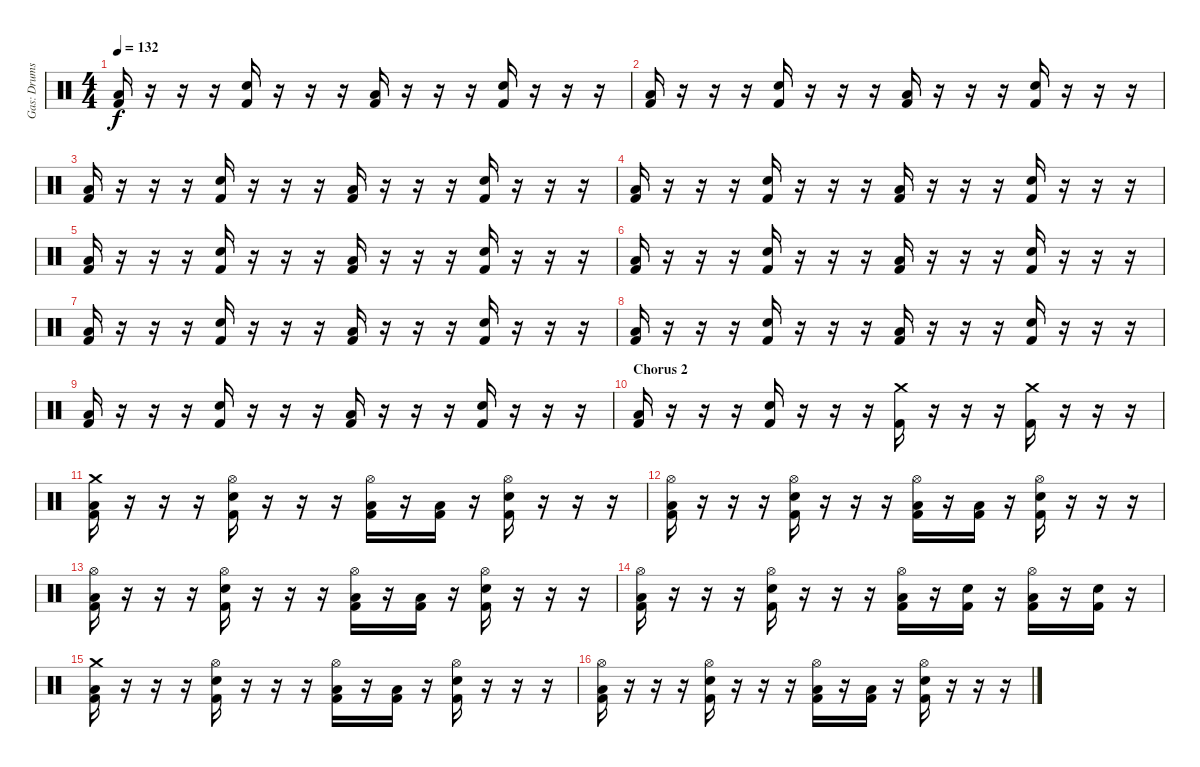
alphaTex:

\track ("Gas: Drums" "Gas: Drums") {instrument percussion}
\staff {score}
\articulation defaults
\ts (4 4)
\tempo 132
\clef neutral
\ks c
("Low Tom (hit)" "Kick (hit) 2").16{dy f} r.16 r.16 r.16 ("Electric Snare (hit)" "Kick (hit) 2").16 r.16 r.16 r.16 ("Low Tom (hit)" "Kick (hit) 2").16 r.16 r.16 r.16 ("Electric Snare (hit)" "Kick (hit) 2").16 r.16 r.16 r.16 |
("Low Tom (hit)" "Kick (hit) 2").16 r.16 r.16 r.16 ("Electric Snare (hit)" "Kick (hit) 2").16 r.16 r.16 r.16 ("Low Tom (hit)" "Kick (hit) 2").16 r.16 r.16 r.16 ("Electric Snare (hit)" "Kick (hit) 2").16 r.16 r.16 r.16 |
("Low Tom (hit)" "Kick (hit) 2").16 r.16 r.16 r.16 ("Electric Snare (hit)" "Kick (hit) 2").16 r.16 r.16 r.16 ("Low Tom (hit)" "Kick (hit) 2").16 r.16 r.16 r.16 ("Electric Snare (hit)" "Kick (hit) 2").16 r.16 r.16 r.16 |
("Low Tom (hit)" "Kick (hit) 2").16 r.16 r.16 r.16 ("Electric Snare (hit)" "Kick (hit) 2").16 r.16 r.16 r.16 ("Low Tom (hit)" "Kick (hit) 2").16 r.16 r.16 r.16 ("Electric Snare (hit)" "Kick (hit) 2").16 r.16 r.16 r.16 |
("Low Tom (hit)" "Kick (hit) 2").16 r.16 r.16 r.16 ("Electric Snare (hit)" "Kick (hit) 2").16 r.16 r.16 r.16 ("Low Tom (hit)" "Kick (hit) 2").16 r.16 r.16 r.16 ("Electric Snare (hit)" "Kick (hit) 2").16 r.16 r.16 r.16 |
("Low Tom (hit)" "Kick (hit) 2").16 r.16 r.16 r.16 ("Electric Snare (hit)" "Kick (hit) 2").16 r.16 r.16 r.16 ("Low Tom (hit)" "Kick (hit) 2").16 r.16 r.16 r.16 ("Electric Snare (hit)" "Kick (hit) 2").16 r.16 r.16 r.16 |
("Low Tom (hit)" "Kick (hit) 2").16 r.16 r.16 r.16 ("Electric Snare (hit)" "Kick (hit) 2").16 r.16 r.16 r.16 ("Low Tom (hit)" "Kick (hit) 2").16 r.16 r.16 r.16 ("Electric Snare (hit)" "Kick (hit) 2").16 r.16 r.16 r.16 |
("Low Tom (hit)" "Kick (hit) 2").16 r.16 r.16 r.16 ("Electric Snare (hit)" "Kick (hit) 2").16 r.16 r.16 r.16 ("Low Tom (hit)" "Kick (hit) 2").16 r.16 r.16 r.16 ("Electric Snare (hit)" "Kick (hit) 2").16 r.16 r.16 r.16 |
("Low Tom (hit)" "Kick (hit) 2").16 r.16 r.16 r.16 ("Electric Snare (hit)" "Kick (hit) 2").16 r.16 r.16 r.16 ("Low Tom (hit)" "Kick (hit) 2").16 r.16 r.16 r.16 ("Electric Snare (hit)" "Kick (hit) 2").16 r.16 r.16 r.16 |
\section ("" "Chorus 2")
("Low Tom (hit)" "Kick (hit) 2").16 r.16 r.16 r.16 ("Electric Snare (hit)" "Kick (hit) 2").16 r.16 r.16 r.16 ("Crash medium (hit)" "Kick (hit) 2").16 r.16 r.16 r.16 ("Crash medium (hit)" "Kick (hit) 2").16 r.16 r.16 r.16 |
("Crash medium (hit)" "Low Tom (hit)" "Kick (hit) 2").16 r.16 r.16 r.16 ("Hi-Hat (open)" "Electric Snare (hit)" "Kick (hit) 2").16 r.16 r.16 r.16 ("Hi-Hat (open)" "Low Tom (hit)" "Kick (hit) 2").16 r.16 ("Low Tom (hit)" "Kick (hit) 2").16 r.16 ("Hi-Hat (open)" "Electric Snare (hit)" "Kick (hit) 2").16 r.16 r.16 r.16 |
("Hi-Hat (open)" "Low Tom (hit)" "Kick (hit) 2").16 r.16 r.16 r.16 ("Hi-Hat (open)" "Electric Snare (hit)" "Kick (hit) 2").16 r.16 r.16 r.16 ("Hi-Hat (open)" "Low Tom (hit)" "Kick (hit) 2").16 r.16 ("Low Tom (hit)" "Kick (hit) 2").16 r.16 ("Hi-Hat (open)" "Electric Snare (hit)" "Kick (hit) 2").16 r.16 r.16 r.16 |
("Hi-Hat (open)" "Low Tom (hit)" "Kick (hit) 2").16 r.16 r.16 r.16 ("Hi-Hat (open)" "Electric Snare (hit)" "Kick (hit) 2").16 r.16 r.16 r.16 ("Hi-Hat (open)" "Low Tom (hit)" "Kick (hit) 2").16 r.16 ("Low Tom (hit)" "Kick (hit) 2").16 r.16 ("Hi-Hat (open)" "Electric Snare (hit)" "Kick (hit) 2").16 r.16 r.16 r.16 |
("Hi-Hat (open)" "Low Tom (hit)" "Kick (hit) 2").16 r.16 r.16 r.16 ("Hi-Hat (open)" "Electric Snare (hit)" "Kick (hit) 2").16 r.16 r.16 r.16 ("Hi-Hat (open)" "Low Tom (hit)" "Kick (hit) 2").16 r.16 ("Electric Snare (hit)" "Kick (hit) 2").16 r.16 ("Hi-Hat (open)" "Low Tom (hit)" "Kick (hit) 2").16 r.16 ("Electric Snare (hit)" "Kick (hit) 2").16 r.16 |
("Crash medium (hit)" "Low Tom (hit)" "Kick (hit) 2").16 r.16 r.16 r.16 ("Hi-Hat (open)" "Electric Snare (hit)" "Kick (hit) 2").16 r.16 r.16 r.16 ("Hi-Hat (open)" "Low Tom (hit)" "Kick (hit) 2").16 r.16 ("Low Tom (hit)" "Kick (hit) 2").16 r.16 ("Hi-Hat (open)" "Electric Snare (hit)" "Kick (hit) 2").16 r.16 r.16 r.16 |
("Hi-Hat (open)" "Low Tom (hit)" "Kick (hit) 2").16 r.16 r.16 r.16 ("Hi-Hat (open)" "Electric Snare (hit)" "Kick (hit) 2").16 r.16 r.16 r.16 ("Hi-Hat (open)" "Low Tom (hit)" "Kick (hit) 2").16 r.16 ("Low Tom (hit)" "Kick (hit) 2").16 r.16 ("Hi-Hat (open)" "Electric Snare (hit)" "Kick (hit) 2").16 r.16 r.16 r.16
